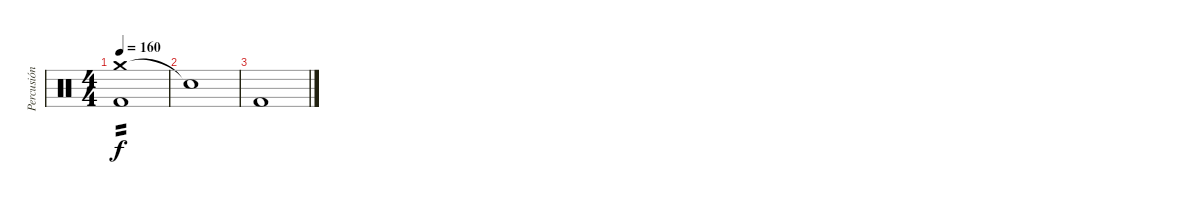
\track ("Percusión" "Percusión") {instrument percussion}
\staff {score}
\articulation defaults
\ts (4 4)
\tempo 160
\clef neutral
\ks c
("Crash medium (hit)" "Kick (hit) 2").1{tp 2 dy f} |
"Snare (hit)"{t}.1 |
"Kick (hit) 2".1
